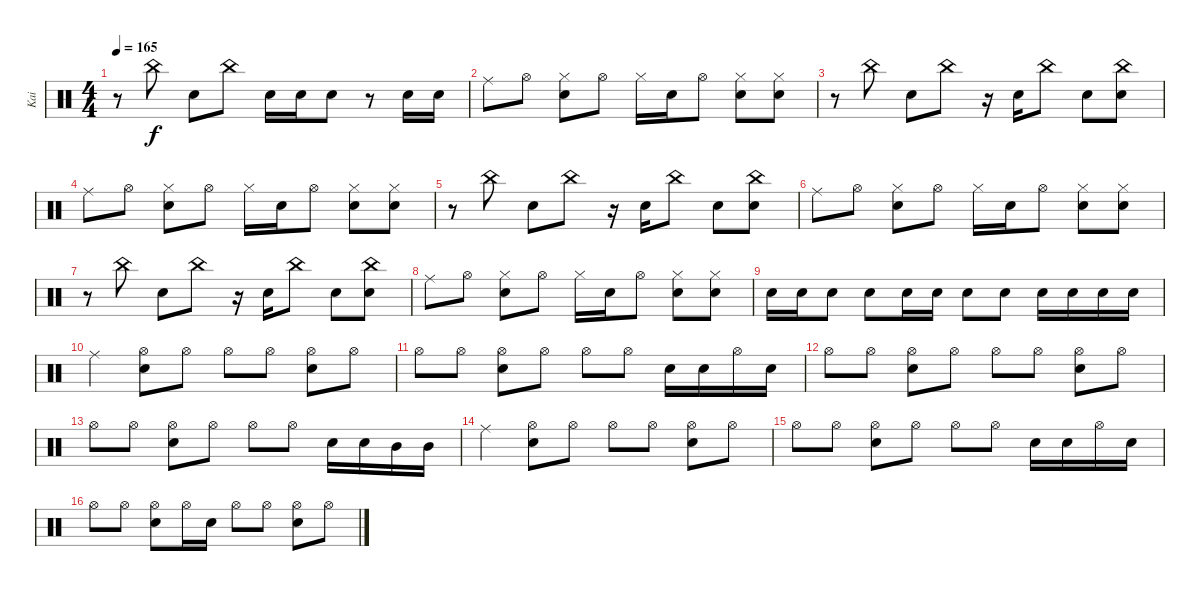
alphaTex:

\track ("Kai" "Kai") {instrument percussion}
\staff {score}
\articulation defaults
\ts (4 4)
\tempo 165
\clef neutral
\ks c
r.8{dy f} "China (hit)".8 "Snare (hit) 2".8 "China (hit)".8 "Snare (hit) 2".16 "Snare (hit) 2".16 "Snare (hit) 2".8 r.8 "Snare (hit) 2".16 "Snare (hit) 2".16 |
"Ride (middle)".8 "Hi-Hat (open)".8 ("Hi-Hat (closed)" "Snare (hit) 2").8 "Hi-Hat (open)".8 "Hi-Hat (closed)".16 "Snare (hit) 2".16 "Hi-Hat (open)".8 ("Hi-Hat (closed)" "Snare (hit) 2").8 ("Hi-Hat (closed)" "Snare (hit) 2").8 |
r.8 "China (hit)".8 "Snare (hit) 2".8 "China (hit)".8 r.16 "Snare (hit) 2".16 "China (hit)".8 "Snare (hit) 2".8 ("China (hit)" "Snare (hit) 2").8 |
"Ride (middle)".8 "Hi-Hat (open)".8 ("Hi-Hat (closed)" "Snare (hit) 2").8 "Hi-Hat (open)".8 "Hi-Hat (closed)".16 "Snare (hit) 2".16 "Hi-Hat (open)".8 ("Hi-Hat (closed)" "Snare (hit) 2").8 ("Hi-Hat (closed)" "Snare (hit) 2").8 |
r.8 "China (hit)".8 "Snare (hit) 2".8 "China (hit)".8 r.16 "Snare (hit) 2".16 "China (hit)".8 "Snare (hit) 2".8 ("China (hit)" "Snare (hit) 2").8 |
"Ride (middle)".8 "Hi-Hat (open)".8 ("Hi-Hat (closed)" "Snare (hit) 2").8 "Hi-Hat (open)".8 "Hi-Hat (closed)".16 "Snare (hit) 2".16 "Hi-Hat (open)".8 ("Hi-Hat (closed)" "Snare (hit) 2").8 ("Hi-Hat (closed)" "Snare (hit) 2").8 |
r.8 "China (hit)".8 "Snare (hit) 2".8 "China (hit)".8 r.16 "Snare (hit) 2".16 "China (hit)".8 "Snare (hit) 2".8 ("China (hit)" "Snare (hit) 2").8 |
"Ride (middle)".8 "Hi-Hat (open)".8 ("Hi-Hat (closed)" "Snare (hit) 2").8 "Hi-Hat (open)".8 "Hi-Hat (closed)".16 "Snare (hit) 2".16 "Hi-Hat (open)".8 ("Hi-Hat (closed)" "Snare (hit) 2").8 ("Hi-Hat (closed)" "Snare (hit) 2").8 |
"Snare (hit) 2".16 "Snare (hit) 2".16 "Snare (hit) 2".8 "Snare (hit) 2".8 "Snare (hit) 2".16 "Snare (hit) 2".16 "Snare (hit) 2".8 "Snare (hit) 2".8 "Snare (hit) 2".16 "Snare (hit) 2".16 "Snare (hit) 2".16 "Snare (hit) 2".16 |
"Ride (middle)".4 ("Hi-Hat (open)" "Snare (hit) 2").8 "Hi-Hat (open)".8 "Hi-Hat (open)".8 "Hi-Hat (open)".8 ("Hi-Hat (open)" "Snare (hit) 2").8 "Hi-Hat (open)".8 |
"Hi-Hat (open)".8 "Hi-Hat (open)".8 ("Hi-Hat (open)" "Snare (hit) 2").8 "Hi-Hat (open)".8 "Hi-Hat (open)".8 "Hi-Hat (open)".8 "Snare (hit) 2".16 "Snare (hit) 2".16 "Hi-Hat (open)".16 "Snare (hit) 2".16 |
"Hi-Hat (open)".8 "Hi-Hat (open)".8 ("Hi-Hat (open)" "Snare (hit) 2").8 "Hi-Hat (open)".8 "Hi-Hat (open)".8 "Hi-Hat (open)".8 ("Hi-Hat (open)" "Snare (hit) 2").8 "Hi-Hat (open)".8 |
"Hi-Hat (open)".8 "Hi-Hat (open)".8 ("Hi-Hat (open)" "Snare (hit) 2").8 "Hi-Hat (open)".8 "Hi-Hat (open)".8 "Hi-Hat (open)".8 "Snare (hit) 2".16 "Snare (hit) 2".16 "Mid Tom (hit)".16 "Mid Tom (hit)".16 |
"Ride (middle)".4 ("Hi-Hat (open)" "Snare (hit) 2").8 "Hi-Hat (open)".8 "Hi-Hat (open)".8 "Hi-Hat (open)".8 ("Hi-Hat (open)" "Snare (hit) 2").8 "Hi-Hat (open)".8 |
"Hi-Hat (open)".8 "Hi-Hat (open)".8 ("Hi-Hat (open)" "Snare (hit) 2").8 "Hi-Hat (open)".8 "Hi-Hat (open)".8 "Hi-Hat (open)".8 "Snare (hit) 2".16 "Snare (hit) 2".16 "Hi-Hat (open)".16 "Snare (hit) 2".16 |
"Hi-Hat (open)".8 "Hi-Hat (open)".8 ("Hi-Hat (open)" "Snare (hit) 2").8 "Hi-Hat (open)".16 "Snare (hit) 2".16 "Hi-Hat (open)".8 "Hi-Hat (open)".8 ("Hi-Hat (open)" "Snare (hit) 2").8 "Hi-Hat (open)".8
